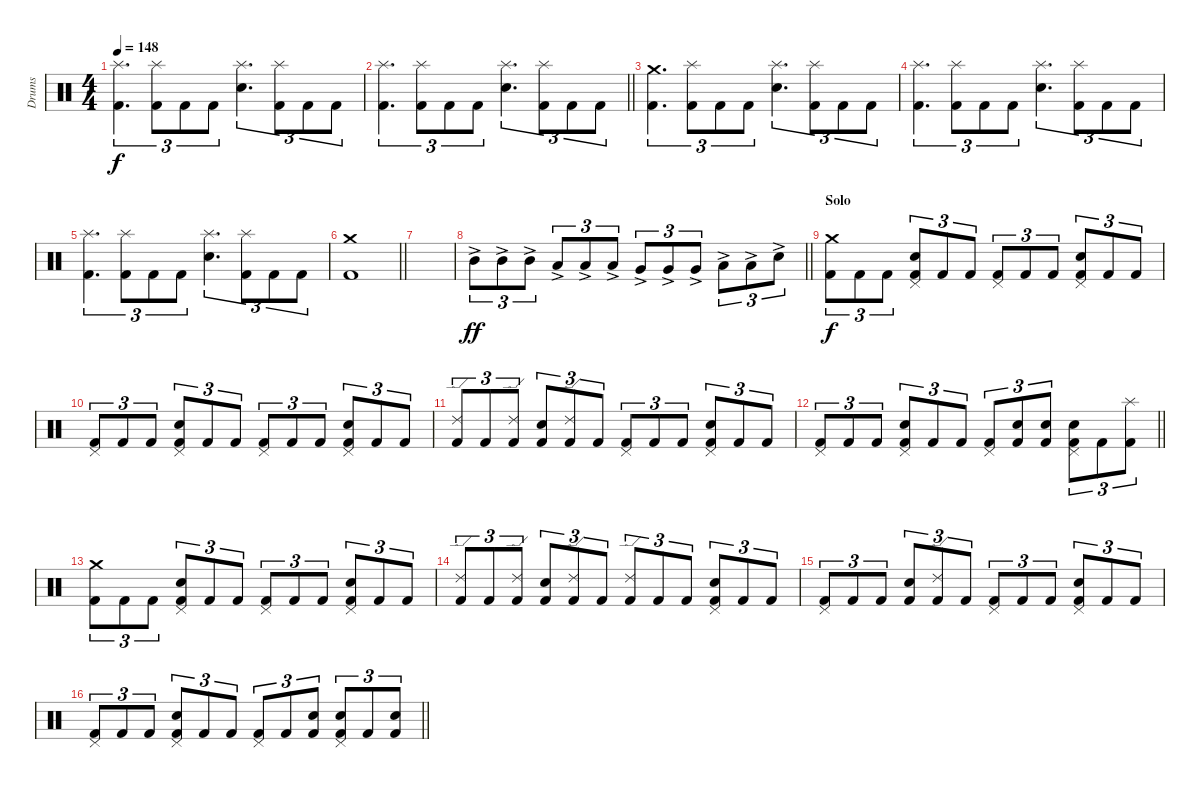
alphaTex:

\track ("Drums" "Drums") {instrument percussion}
\staff {score}
\articulation defaults
\ts (4 4)
\tempo 148
\clef neutral
\ks c
("Kick (hit) 2" "Splash (hit)").4{d tu (3 2) dy f} ("Kick (hit) 2" "Splash (hit)").8{tu (3 2)} "Kick (hit) 2".8{tu (3 2)} "Kick (hit) 2".8{tu (3 2)} ("Snare (hit) 2" "Splash (hit)").4{d tu (3 2)} ("Kick (hit) 2" "Splash (hit)").8{tu (3 2)} "Kick (hit) 2".8{tu (3 2)} "Kick (hit) 2".8{tu (3 2)} |
\barLineRight lightlight
("Kick (hit) 2" "Splash (hit)").4{d tu (3 2)} ("Kick (hit) 2" "Splash (hit)").8{tu (3 2)} "Kick (hit) 2".8{tu (3 2)} "Kick (hit) 2".8{tu (3 2)} ("Snare (hit) 2" "Splash (hit)").4{d tu (3 2)} ("Kick (hit) 2" "Splash (hit)").8{tu (3 2)} "Kick (hit) 2".8{tu (3 2)} "Kick (hit) 2".8{tu (3 2)} |
\section ("" "")
("Kick (hit) 2" "Crash medium (hit)").4{d tu (3 2)} ("Kick (hit) 2" "Splash (hit)").8{tu (3 2)} "Kick (hit) 2".8{tu (3 2)} "Kick (hit) 2".8{tu (3 2)} ("Snare (hit) 2" "Splash (hit)").4{d tu (3 2)} ("Kick (hit) 2" "Splash (hit)").8{tu (3 2)} "Kick (hit) 2".8{tu (3 2)} "Kick (hit) 2".8{tu (3 2)} |
("Kick (hit) 2" "Splash (hit)").4{d tu (3 2)} ("Kick (hit) 2" "Splash (hit)").8{tu (3 2)} "Kick (hit) 2".8{tu (3 2)} "Kick (hit) 2".8{tu (3 2)} ("Snare (hit) 2" "Splash (hit)").4{d tu (3 2)} ("Kick (hit) 2" "Splash (hit)").8{tu (3 2)} "Kick (hit) 2".8{tu (3 2)} "Kick (hit) 2".8{tu (3 2)} |
("Kick (hit) 2" "Splash (hit)").4{d tu (3 2)} ("Kick (hit) 2" "Splash (hit)").8{tu (3 2)} "Kick (hit) 2".8{tu (3 2)} "Kick (hit) 2".8{tu (3 2)} ("Snare (hit) 2" "Splash (hit)").4{d tu (3 2)} ("Kick (hit) 2" "Splash (hit)").8{tu (3 2)} "Kick (hit) 2".8{tu (3 2)} "Kick (hit) 2".8{tu (3 2)} |
\barLineRight lightlight
("Kick (hit) 2" "Crash medium (hit)").1 |
\section ("" "")
|
\barLineRight lightlight "Mid Tom (hit)"{ac}.8{tu (3 2) dy ff} "Mid Tom (hit)"{ac}.8{tu (3 2)} "Mid Tom (hit)"{ac}.8{tu (3 2)} "Low Tom (hit)"{ac}.8{tu (3 2)} "Low Tom (hit)"{ac}.8{tu (3 2)} "Low Tom (hit)"{ac}.8{tu (3 2)} "Very Low Tom (hit)"{ac}.8{tu (3 2)} "Very Low Tom (hit)"{ac}.8{tu (3 2)} "Very Low Tom (hit)"{ac}.8{tu (3 2)} "Low Floor Tom (hit)"{ac}.8{tu (3 2)} "Low Floor Tom (hit)"{ac}.8{tu (3 2)} "Snare (hit) 2"{ac}.8{tu (3 2)}
|
\section ("" "Solo")
("Kick (hit) 2" "Crash medium (hit)").8{tu (3 2) dy f} "Kick (hit) 2".8{tu (3 2)} "Kick (hit) 2".8{tu (3 2)} ("Kick (hit) 2" "Snare (hit) 2" "Pedal Hi-Hat (hit)").8{tu (3 2)} "Kick (hit) 2".8{tu (3 2)} "Kick (hit) 2".8{tu (3 2)} ("Kick (hit) 2" "Pedal Hi-Hat (hit)").8{tu (3 2)} "Kick (hit) 2".8{tu (3 2)} "Kick (hit) 2".8{tu (3 2)} ("Kick (hit) 2" "Snare (hit) 2" "Pedal Hi-Hat (hit)").8{tu (3 2)} "Kick (hit) 2".8{tu (3 2)} "Kick (hit) 2".8{tu (3 2)} |
("Kick (hit) 2" "Pedal Hi-Hat (hit)").8{tu (3 2)} "Kick (hit) 2".8{tu (3 2)} "Kick (hit) 2".8{tu (3 2)} ("Kick (hit) 2" "Snare (hit) 2" "Pedal Hi-Hat (hit)").8{tu (3 2)} "Kick (hit) 2".8{tu (3 2)} "Kick (hit) 2".8{tu (3 2)} ("Kick (hit) 2" "Pedal Hi-Hat (hit)").8{tu (3 2)} "Kick (hit) 2".8{tu (3 2)} "Kick (hit) 2".8{tu (3 2)} ("Kick (hit) 2" "Snare (hit) 2" "Pedal Hi-Hat (hit)").8{tu (3 2)} "Kick (hit) 2".8{tu (3 2)} "Kick (hit) 2".8{tu (3 2)} |
("Kick (hit) 2" "Ride (edge) 2").8{tu (3 2)} "Kick (hit) 2".8{tu (3 2)} ("Kick (hit) 2" "Ride (edge) 2").8{tu (3 2)} ("Kick (hit) 2" "Snare (hit) 2").8{tu (3 2)} ("Kick (hit) 2" "Ride (edge) 2").8{tu (3 2)} "Kick (hit) 2".8{tu (3 2)} ("Kick (hit) 2" "Pedal Hi-Hat (hit)").8{tu (3 2)} "Kick (hit) 2".8{tu (3 2)} "Kick (hit) 2".8{tu (3 2)} ("Kick (hit) 2" "Snare (hit) 2" "Pedal Hi-Hat (hit)").8{tu (3 2)} "Kick (hit) 2".8{tu (3 2)} "Kick (hit) 2".8{tu (3 2)} |
\barLineRight lightlight
("Kick (hit) 2" "Pedal Hi-Hat (hit)").8{tu (3 2)} "Kick (hit) 2".8{tu (3 2)} "Kick (hit) 2".8{tu (3 2)} ("Kick (hit) 2" "Snare (hit) 2" "Pedal Hi-Hat (hit)").8{tu (3 2)} "Kick (hit) 2".8{tu (3 2)} "Kick (hit) 2".8{tu (3 2)} ("Kick (hit) 2" "Pedal Hi-Hat (hit)").8{tu (3 2)} ("Kick (hit) 2" "Snare (hit) 2").8{tu (3 2)} ("Kick (hit) 2" "Snare (hit) 2").8{tu (3 2)} ("Kick (hit) 2" "Snare (hit) 2" "Pedal Hi-Hat (hit)").8{tu (3 2)} "Kick (hit) 2".8{tu (3 2)} ("Kick (hit) 2" "Splash (hit)").8{tu (3 2)} |
\section ("" "")
("Kick (hit) 2" "Crash medium (hit)").8{tu (3 2)} "Kick (hit) 2".8{tu (3 2)} "Kick (hit) 2".8{tu (3 2)} ("Kick (hit) 2" "Snare (hit) 2" "Pedal Hi-Hat (hit)").8{tu (3 2)} "Kick (hit) 2".8{tu (3 2)} "Kick (hit) 2".8{tu (3 2)} ("Kick (hit) 2" "Pedal Hi-Hat (hit)").8{tu (3 2)} "Kick (hit) 2".8{tu (3 2)} "Kick (hit) 2".8{tu (3 2)} ("Kick (hit) 2" "Snare (hit) 2" "Pedal Hi-Hat (hit)").8{tu (3 2)} "Kick (hit) 2".8{tu (3 2)} "Kick (hit) 2".8{tu (3 2)} |
("Kick (hit) 2" "Ride (edge) 2").8{tu (3 2)} "Kick (hit) 2".8{tu (3 2)} ("Kick (hit) 2" "Ride (edge) 2").8{tu (3 2)} ("Kick (hit) 2" "Snare (hit) 2").8{tu (3 2)} ("Kick (hit) 2" "Ride (edge) 2").8{tu (3 2)} "Kick (hit) 2".8{tu (3 2)} ("Kick (hit) 2" "Ride (edge) 2").8{tu (3 2)} "Kick (hit) 2".8{tu (3 2)} "Kick (hit) 2".8{tu (3 2)} ("Kick (hit) 2" "Snare (hit) 2" "Pedal Hi-Hat (hit)").8{tu (3 2)} "Kick (hit) 2".8{tu (3 2)} "Kick (hit) 2".8{tu (3 2)} |
("Kick (hit) 2" "Pedal Hi-Hat (hit)").8{tu (3 2)} "Kick (hit) 2".8{tu (3 2)} "Kick (hit) 2".8{tu (3 2)} ("Kick (hit) 2" "Snare (hit) 2").8{tu (3 2)} ("Kick (hit) 2" "Ride (edge) 2").8{tu (3 2)} "Kick (hit) 2".8{tu (3 2)} ("Kick (hit) 2" "Pedal Hi-Hat (hit)").8{tu (3 2)} "Kick (hit) 2".8{tu (3 2)} "Kick (hit) 2".8{tu (3 2)} ("Kick (hit) 2" "Snare (hit) 2" "Pedal Hi-Hat (hit)").8{tu (3 2)} "Kick (hit) 2".8{tu (3 2)} "Kick (hit) 2".8{tu (3 2)} |
\barLineRight lightlight
("Kick (hit) 2" "Pedal Hi-Hat (hit)").8{tu (3 2)} "Kick (hit) 2".8{tu (3 2)} "Kick (hit) 2".8{tu (3 2)} ("Kick (hit) 2" "Snare (hit) 2" "Pedal Hi-Hat (hit)").8{tu (3 2)} "Kick (hit) 2".8{tu (3 2)} "Kick (hit) 2".8{tu (3 2)} ("Kick (hit) 2" "Pedal Hi-Hat (hit)").8{tu (3 2)} "Kick (hit) 2".8{tu (3 2)} ("Kick (hit) 2" "Snare (hit) 2").8{tu (3 2)} ("Kick (hit) 2" "Snare (hit) 2" "Pedal Hi-Hat (hit)").8{tu (3 2)} "Kick (hit) 2".8{tu (3 2)} ("Kick (hit) 2" "Snare (hit) 2").8{tu (3 2)}
